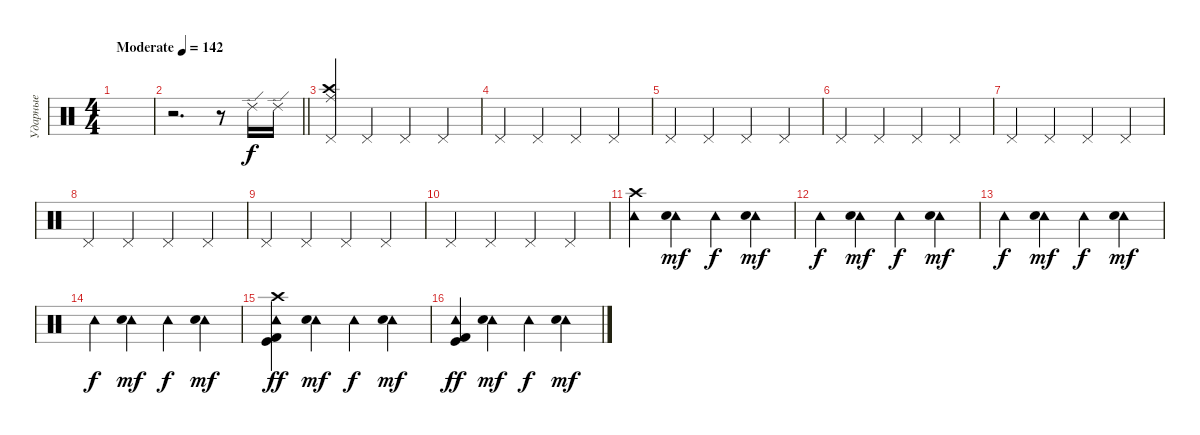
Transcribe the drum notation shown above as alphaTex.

\track ("Ударные" "Ударные") {instrument percussion}
\staff {score}
\articulation defaults
\ts (4 4)
\tempo (142 "Moderate")
\clef neutral
\ks c
|
\barLineRight lightlight
r.2{d} r.8 "Ride (edge) 2".16 "Ride (edge) 2".16 |
("Ride (middle)" "Crash high (hit)" "Pedal Hi-Hat (hit)").4 "Pedal Hi-Hat (hit)".4 "Pedal Hi-Hat (hit)".4 "Pedal Hi-Hat (hit)".4 |
"Pedal Hi-Hat (hit)".4 "Pedal Hi-Hat (hit)".4 "Pedal Hi-Hat (hit)".4 "Pedal Hi-Hat (hit)".4 |
"Pedal Hi-Hat (hit)".4 "Pedal Hi-Hat (hit)".4 "Pedal Hi-Hat (hit)".4 "Pedal Hi-Hat (hit)".4 |
"Pedal Hi-Hat (hit)".4 "Pedal Hi-Hat (hit)".4 "Pedal Hi-Hat (hit)".4 "Pedal Hi-Hat (hit)".4 |
"Pedal Hi-Hat (hit)".4 "Pedal Hi-Hat (hit)".4 "Pedal Hi-Hat (hit)".4 "Pedal Hi-Hat (hit)".4 |
"Pedal Hi-Hat (hit)".4 "Pedal Hi-Hat (hit)".4 "Pedal Hi-Hat (hit)".4 "Pedal Hi-Hat (hit)".4 |
"Pedal Hi-Hat (hit)".4 "Pedal Hi-Hat (hit)".4 "Pedal Hi-Hat (hit)".4 "Pedal Hi-Hat (hit)".4 |
"Pedal Hi-Hat (hit)".4 "Pedal Hi-Hat (hit)".4 "Pedal Hi-Hat (hit)".4 "Pedal Hi-Hat (hit)".4 |
("Tambourine (hit)" "Crash high (hit)").4 ("Tambourine (hit)" "Snare (hit) 2").4{dy mf} "Tambourine (hit)".4{dy f} ("Tambourine (hit)" "Snare (hit) 2").4{dy mf} |
"Tambourine (hit)".4{dy f} ("Tambourine (hit)" "Snare (hit) 2").4{dy mf} "Tambourine (hit)".4{dy f} ("Tambourine (hit)" "Snare (hit) 2").4{dy mf} |
"Tambourine (hit)".4{dy f} ("Tambourine (hit)" "Snare (hit) 2").4{dy mf} "Tambourine (hit)".4{dy f} ("Tambourine (hit)" "Snare (hit) 2").4{dy mf} |
"Tambourine (hit)".4{dy f} ("Tambourine (hit)" "Snare (hit) 2").4{dy mf} "Tambourine (hit)".4{dy f} ("Tambourine (hit)" "Snare (hit) 2").4{dy mf} |
("Tambourine (hit)" "Crash high (hit)" "Kick (hit) 2" "Kick (hit)").4{dy ff} ("Tambourine (hit)" "Snare (hit) 2").4{dy mf} "Tambourine (hit)".4{dy f} ("Tambourine (hit)" "Snare (hit) 2").4{dy mf} |
("Tambourine (hit)" "Kick (hit) 2" "Kick (hit)").4{dy ff} ("Tambourine (hit)" "Snare (hit) 2").4{dy mf} "Tambourine (hit)".4{dy f} ("Tambourine (hit)" "Snare (hit) 2").4{dy mf}
